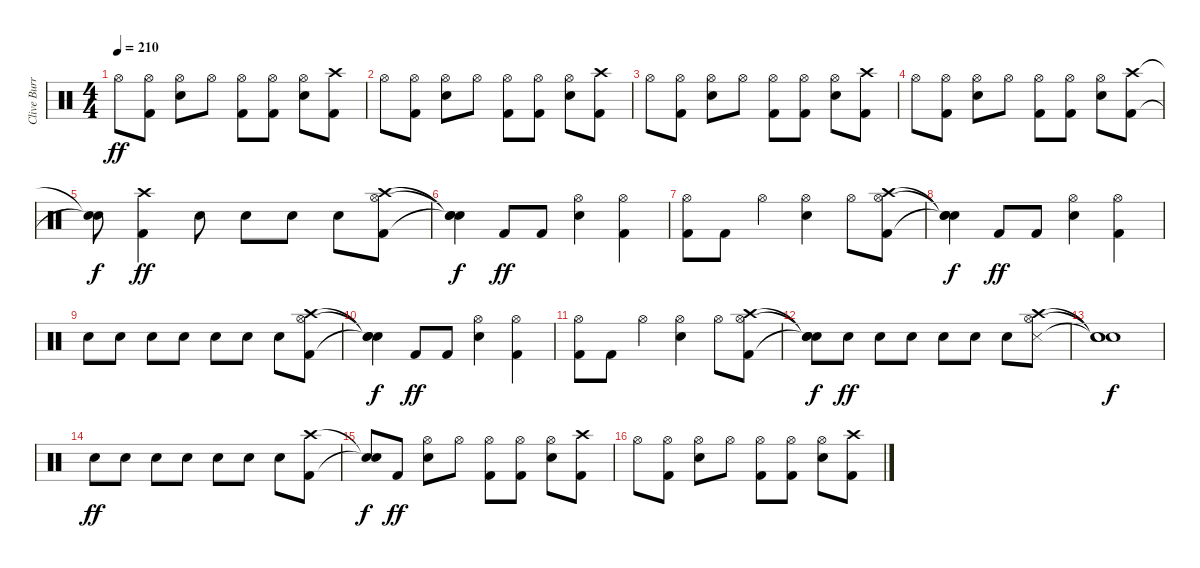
\track ("Clive Burr" "Clive Burr") {instrument percussion}
\staff {score}
\articulation defaults
\ts (4 4)
\tempo 210
\clef neutral
\ks c "Hi-Hat (open)".8{dy ff}
("Kick (hit) 2" "Hi-Hat (open)").8 ("Snare (hit) 2" "Hi-Hat (open)").8 "Hi-Hat (open)".8 ("Kick (hit) 2" "Hi-Hat (open)").8 ("Kick (hit) 2" "Hi-Hat (open)").8 ("Snare (hit) 2" "Hi-Hat (open)").8 ("Kick (hit) 2" "Crash high (hit)").8 |
"Hi-Hat (open)".8 ("Kick (hit) 2" "Hi-Hat (open)").8 ("Snare (hit) 2" "Hi-Hat (open)").8 "Hi-Hat (open)".8 ("Kick (hit) 2" "Hi-Hat (open)").8 ("Kick (hit) 2" "Hi-Hat (open)").8 ("Snare (hit) 2" "Hi-Hat (open)").8 ("Kick (hit) 2" "Crash high (hit)").8 |
"Hi-Hat (open)".8 ("Kick (hit) 2" "Hi-Hat (open)").8 ("Snare (hit) 2" "Hi-Hat (open)").8 "Hi-Hat (open)".8 ("Kick (hit) 2" "Hi-Hat (open)").8 ("Kick (hit) 2" "Hi-Hat (open)").8 ("Snare (hit) 2" "Hi-Hat (open)").8 ("Kick (hit) 2" "Crash high (hit)").8 |
"Hi-Hat (open)".8 ("Kick (hit) 2" "Hi-Hat (open)").8 ("Snare (hit) 2" "Hi-Hat (open)").8 "Hi-Hat (open)".8 ("Kick (hit) 2" "Hi-Hat (open)").8 ("Kick (hit) 2" "Hi-Hat (open)").8 ("Snare (hit) 2" "Hi-Hat (open)").8 ("Kick (hit) 2" "Crash high (hit)").8 |
("Snare (hit)"{t} "Snare (hit)"{t}).8{dy f} ("Kick (hit) 2" "Crash high (hit)").4{dy ff} "Snare (hit) 2".8 "Snare (hit) 2".8 "Snare (hit) 2".8 "Snare (hit) 2".8 ("Kick (hit) 2" "Hi-Hat (open)" "Crash high (hit)").8 |
("Snare (hit)"{t} "Snare (hit)"{t} "Snare (hit)"{t}).4{dy f} "Kick (hit) 2".8{dy ff} "Kick (hit) 2".8 ("Snare (hit) 2" "Hi-Hat (open)").4 ("Kick (hit) 2" "Hi-Hat (open)").4 |
("Kick (hit) 2" "Hi-Hat (open)").8 "Kick (hit) 2".8 "Hi-Hat (open)".4 ("Snare (hit) 2" "Hi-Hat (open)").4 "Hi-Hat (open)".8 ("Kick (hit) 2" "Hi-Hat (open)" "Crash high (hit)").8 |
("Snare (hit)"{t} "Snare (hit)"{t} "Snare (hit)"{t}).4{dy f} "Kick (hit) 2".8{dy ff} "Kick (hit) 2".8 ("Snare (hit) 2" "Hi-Hat (open)").4 ("Kick (hit) 2" "Hi-Hat (open)").4 |
"Snare (hit) 2".8 "Snare (hit) 2".8 "Snare (hit) 2".8 "Snare (hit) 2".8 "Snare (hit) 2".8 "Snare (hit) 2".8 "Snare (hit) 2".8 ("Kick (hit) 2" "Hi-Hat (open)" "Crash high (hit)").8 |
("Snare (hit)"{t} "Snare (hit)"{t} "Snare (hit)"{t}).4{dy f} "Kick (hit) 2".8{dy ff} "Kick (hit) 2".8 ("Snare (hit) 2" "Hi-Hat (open)").4 ("Kick (hit) 2" "Hi-Hat (open)").4 |
("Kick (hit) 2" "Hi-Hat (open)").8 "Kick (hit) 2".8 "Hi-Hat (open)".4 ("Snare (hit) 2" "Hi-Hat (open)").4 "Hi-Hat (open)".8 ("Kick (hit) 2" "Hi-Hat (open)" "Crash high (hit)").8 |
("Snare (hit)"{t} "Snare (hit)"{t} "Snare (hit)"{t}).8{dy f} "Snare (hit) 2".8{dy ff} "Snare (hit) 2".8 "Snare (hit) 2".8 "Snare (hit) 2".8 "Snare (hit) 2".8 "Snare (hit) 2".8 ("Snare (side stick) 3" "Hi-Hat (open)" "Crash high (hit)").8 |
("Snare (hit)"{t} "Snare (hit)"{t} "Snare (hit)"{t}).1{dy f} |
"Snare (hit) 2".8{dy ff} "Snare (hit) 2".8 "Snare (hit) 2".8 "Snare (hit) 2".8 "Snare (hit) 2".8 "Snare (hit) 2".8 "Snare (hit) 2".8 ("Kick (hit) 2" "Crash high (hit)").8 |
("Snare (hit)"{t} "Snare (hit)"{t}).8{dy f} "Kick (hit) 2".8{dy ff} ("Snare (hit) 2" "Hi-Hat (open)").8 "Hi-Hat (open)".8 ("Kick (hit) 2" "Hi-Hat (open)").8 ("Kick (hit) 2" "Hi-Hat (open)").8 ("Snare (hit) 2" "Hi-Hat (open)").8 ("Kick (hit) 2" "Crash high (hit)").8 |
"Hi-Hat (open)".8 ("Kick (hit) 2" "Hi-Hat (open)").8 ("Snare (hit) 2" "Hi-Hat (open)").8 "Hi-Hat (open)".8 ("Kick (hit) 2" "Hi-Hat (open)").8 ("Kick (hit) 2" "Hi-Hat (open)").8 ("Snare (hit) 2" "Hi-Hat (open)").8 ("Kick (hit) 2" "Crash high (hit)").8
